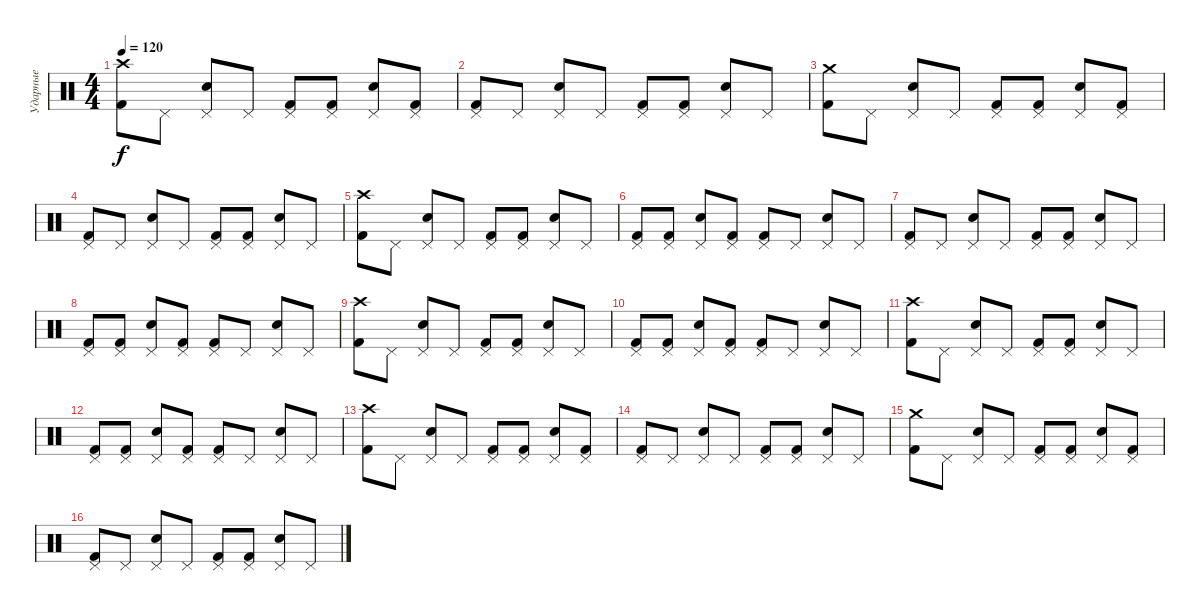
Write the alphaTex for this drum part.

\track ("Ударные" "Ударные") {instrument percussion}
\staff {score}
\articulation defaults
\ts (4 4)
\tempo 120
\clef neutral
\ks c
("Crash high (hit)" "Kick (hit) 2").8{dy f} "Pedal Hi-Hat (hit)".8 ("Pedal Hi-Hat (hit)" "Electric Snare (hit)").8 "Pedal Hi-Hat (hit)".8 ("Pedal Hi-Hat (hit)" "Kick (hit) 2").8 ("Pedal Hi-Hat (hit)" "Kick (hit) 2").8 ("Pedal Hi-Hat (hit)" "Electric Snare (hit)").8 ("Pedal Hi-Hat (hit)" "Kick (hit) 2").8 |
("Pedal Hi-Hat (hit)" "Kick (hit) 2").8 "Pedal Hi-Hat (hit)".8 ("Pedal Hi-Hat (hit)" "Electric Snare (hit)").8 "Pedal Hi-Hat (hit)".8 ("Pedal Hi-Hat (hit)" "Kick (hit) 2").8 ("Pedal Hi-Hat (hit)" "Kick (hit) 2").8 ("Pedal Hi-Hat (hit)" "Electric Snare (hit)").8 "Pedal Hi-Hat (hit)".8 |
("Crash medium (hit)" "Kick (hit) 2").8 "Pedal Hi-Hat (hit)".8 ("Pedal Hi-Hat (hit)" "Electric Snare (hit)").8 "Pedal Hi-Hat (hit)".8 ("Pedal Hi-Hat (hit)" "Kick (hit) 2").8 ("Pedal Hi-Hat (hit)" "Kick (hit) 2").8 ("Pedal Hi-Hat (hit)" "Electric Snare (hit)").8 ("Pedal Hi-Hat (hit)" "Kick (hit) 2").8 |
("Pedal Hi-Hat (hit)" "Kick (hit) 2").8 "Pedal Hi-Hat (hit)".8 ("Pedal Hi-Hat (hit)" "Electric Snare (hit)").8 "Pedal Hi-Hat (hit)".8 ("Pedal Hi-Hat (hit)" "Kick (hit) 2").8 ("Pedal Hi-Hat (hit)" "Kick (hit) 2").8 ("Pedal Hi-Hat (hit)" "Electric Snare (hit)").8 "Pedal Hi-Hat (hit)".8 |
("Crash high (hit)" "Kick (hit) 2").8 "Pedal Hi-Hat (hit)".8 ("Pedal Hi-Hat (hit)" "Electric Snare (hit)").8 "Pedal Hi-Hat (hit)".8 ("Pedal Hi-Hat (hit)" "Kick (hit) 2").8 ("Pedal Hi-Hat (hit)" "Kick (hit) 2").8 ("Pedal Hi-Hat (hit)" "Electric Snare (hit)").8 "Pedal Hi-Hat (hit)".8 |
("Pedal Hi-Hat (hit)" "Kick (hit) 2").8 ("Pedal Hi-Hat (hit)" "Kick (hit) 2").8 ("Pedal Hi-Hat (hit)" "Electric Snare (hit)").8 ("Pedal Hi-Hat (hit)" "Kick (hit) 2").8 ("Pedal Hi-Hat (hit)" "Kick (hit) 2").8 "Pedal Hi-Hat (hit)".8 ("Pedal Hi-Hat (hit)" "Electric Snare (hit)").8 "Pedal Hi-Hat (hit)".8 |
("Pedal Hi-Hat (hit)" "Kick (hit) 2").8 "Pedal Hi-Hat (hit)".8 ("Pedal Hi-Hat (hit)" "Electric Snare (hit)").8 "Pedal Hi-Hat (hit)".8 ("Pedal Hi-Hat (hit)" "Kick (hit) 2").8 ("Pedal Hi-Hat (hit)" "Kick (hit) 2").8 ("Pedal Hi-Hat (hit)" "Electric Snare (hit)").8 "Pedal Hi-Hat (hit)".8 |
("Pedal Hi-Hat (hit)" "Kick (hit) 2").8 ("Pedal Hi-Hat (hit)" "Kick (hit) 2").8 ("Pedal Hi-Hat (hit)" "Electric Snare (hit)").8 ("Pedal Hi-Hat (hit)" "Kick (hit) 2").8 ("Pedal Hi-Hat (hit)" "Kick (hit) 2").8 "Pedal Hi-Hat (hit)".8 ("Pedal Hi-Hat (hit)" "Electric Snare (hit)").8 "Pedal Hi-Hat (hit)".8 |
("Crash high (hit)" "Kick (hit) 2").8 "Pedal Hi-Hat (hit)".8 ("Pedal Hi-Hat (hit)" "Electric Snare (hit)").8 "Pedal Hi-Hat (hit)".8 ("Pedal Hi-Hat (hit)" "Kick (hit) 2").8 ("Pedal Hi-Hat (hit)" "Kick (hit) 2").8 ("Pedal Hi-Hat (hit)" "Electric Snare (hit)").8 "Pedal Hi-Hat (hit)".8 |
("Pedal Hi-Hat (hit)" "Kick (hit) 2").8 ("Pedal Hi-Hat (hit)" "Kick (hit) 2").8 ("Pedal Hi-Hat (hit)" "Electric Snare (hit)").8 ("Pedal Hi-Hat (hit)" "Kick (hit) 2").8 ("Pedal Hi-Hat (hit)" "Kick (hit) 2").8 "Pedal Hi-Hat (hit)".8 ("Pedal Hi-Hat (hit)" "Electric Snare (hit)").8 "Pedal Hi-Hat (hit)".8 |
("Crash high (hit)" "Kick (hit) 2").8 "Pedal Hi-Hat (hit)".8 ("Pedal Hi-Hat (hit)" "Electric Snare (hit)").8 "Pedal Hi-Hat (hit)".8 ("Pedal Hi-Hat (hit)" "Kick (hit) 2").8 ("Pedal Hi-Hat (hit)" "Kick (hit) 2").8 ("Pedal Hi-Hat (hit)" "Electric Snare (hit)").8 "Pedal Hi-Hat (hit)".8 |
("Pedal Hi-Hat (hit)" "Kick (hit) 2").8 ("Pedal Hi-Hat (hit)" "Kick (hit) 2").8 ("Pedal Hi-Hat (hit)" "Electric Snare (hit)").8 ("Pedal Hi-Hat (hit)" "Kick (hit) 2").8 ("Pedal Hi-Hat (hit)" "Kick (hit) 2").8 "Pedal Hi-Hat (hit)".8 ("Pedal Hi-Hat (hit)" "Electric Snare (hit)").8 "Pedal Hi-Hat (hit)".8 |
("Crash high (hit)" "Kick (hit) 2").8 "Pedal Hi-Hat (hit)".8 ("Pedal Hi-Hat (hit)" "Electric Snare (hit)").8 "Pedal Hi-Hat (hit)".8 ("Pedal Hi-Hat (hit)" "Kick (hit) 2").8 ("Pedal Hi-Hat (hit)" "Kick (hit) 2").8 ("Pedal Hi-Hat (hit)" "Electric Snare (hit)").8 ("Pedal Hi-Hat (hit)" "Kick (hit) 2").8 |
("Pedal Hi-Hat (hit)" "Kick (hit) 2").8 "Pedal Hi-Hat (hit)".8 ("Pedal Hi-Hat (hit)" "Electric Snare (hit)").8 "Pedal Hi-Hat (hit)".8 ("Pedal Hi-Hat (hit)" "Kick (hit) 2").8 ("Pedal Hi-Hat (hit)" "Kick (hit) 2").8 ("Pedal Hi-Hat (hit)" "Electric Snare (hit)").8 "Pedal Hi-Hat (hit)".8 |
("Crash medium (hit)" "Kick (hit) 2").8 "Pedal Hi-Hat (hit)".8 ("Pedal Hi-Hat (hit)" "Electric Snare (hit)").8 "Pedal Hi-Hat (hit)".8 ("Pedal Hi-Hat (hit)" "Kick (hit) 2").8 ("Pedal Hi-Hat (hit)" "Kick (hit) 2").8 ("Pedal Hi-Hat (hit)" "Electric Snare (hit)").8 ("Pedal Hi-Hat (hit)" "Kick (hit) 2").8 |
("Pedal Hi-Hat (hit)" "Kick (hit) 2").8 "Pedal Hi-Hat (hit)".8 ("Pedal Hi-Hat (hit)" "Electric Snare (hit)").8 "Pedal Hi-Hat (hit)".8 ("Pedal Hi-Hat (hit)" "Kick (hit) 2").8 ("Pedal Hi-Hat (hit)" "Kick (hit) 2").8 ("Pedal Hi-Hat (hit)" "Electric Snare (hit)").8 "Pedal Hi-Hat (hit)".8
